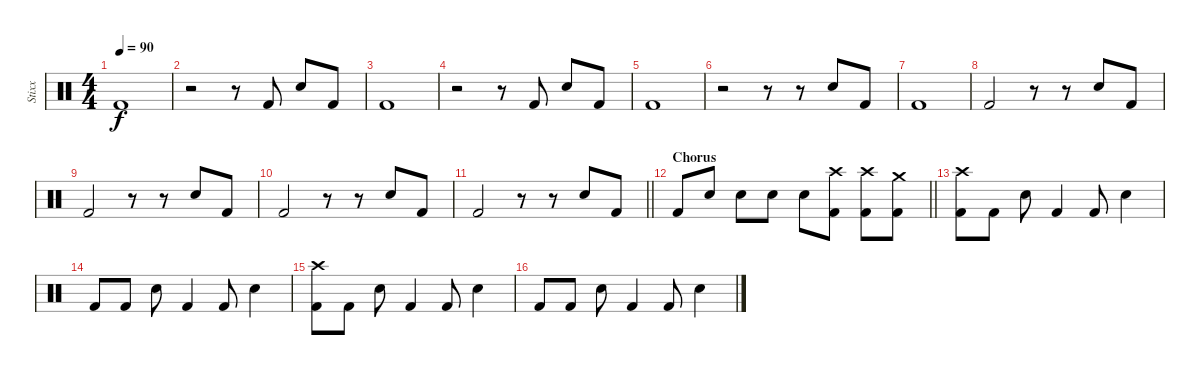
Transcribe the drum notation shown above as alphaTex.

\track ("Stixx" "Stixx") {instrument percussion}
\staff {score}
\articulation defaults
\ts (4 4)
\tempo 90
\clef neutral
\ks c "Kick (hit) 2".1{dy f}
|
r.2 r.8 "Kick (hit) 2".8 "Electric Snare (hit)".8 "Kick (hit) 2".8 |
"Kick (hit) 2".1 |
r.2 r.8 "Kick (hit) 2".8 "Electric Snare (hit)".8 "Kick (hit) 2".8 |
"Kick (hit) 2".1 |
r.2 r.8 r.8 "Electric Snare (hit)".8 "Kick (hit) 2".8 |
"Kick (hit) 2".1 |
"Kick (hit) 2".2 r.8 r.8 "Electric Snare (hit)".8 "Kick (hit) 2".8 |
"Kick (hit) 2".2 r.8 r.8 "Electric Snare (hit)".8 "Kick (hit) 2".8 |
"Kick (hit) 2".2 r.8 r.8 "Electric Snare (hit)".8 "Kick (hit) 2".8 |
\barLineRight lightlight "Kick (hit) 2".2
r.8 r.8 "Electric Snare (hit)".8 "Kick (hit) 2".8 |
\section ("" "Chorus")
\barLineRight lightlight "Kick (hit) 2".8 "Electric Snare (hit)".8 "Electric Snare (hit)".8 "Electric Snare (hit)".8 "Electric Snare (hit)".8
("Crash high (hit)" "Kick (hit) 2").8 ("Crash high (hit)" "Kick (hit) 2").8 ("Crash medium (hit)" "Kick (hit) 2").8 |
("Crash high (hit)" "Kick (hit) 2").8 "Kick (hit) 2".8 "Electric Snare (hit)".8 "Kick (hit) 2".4 "Kick (hit) 2".8 "Electric Snare (hit)".4 |
"Kick (hit) 2".8 "Kick (hit) 2".8 "Electric Snare (hit)".8 "Kick (hit) 2".4 "Kick (hit) 2".8 "Electric Snare (hit)".4 |
("Crash high (hit)" "Kick (hit) 2").8 "Kick (hit) 2".8 "Electric Snare (hit)".8 "Kick (hit) 2".4 "Kick (hit) 2".8 "Electric Snare (hit)".4 |
"Kick (hit) 2".8 "Kick (hit) 2".8 "Electric Snare (hit)".8 "Kick (hit) 2".4 "Kick (hit) 2".8 "Electric Snare (hit)".4
